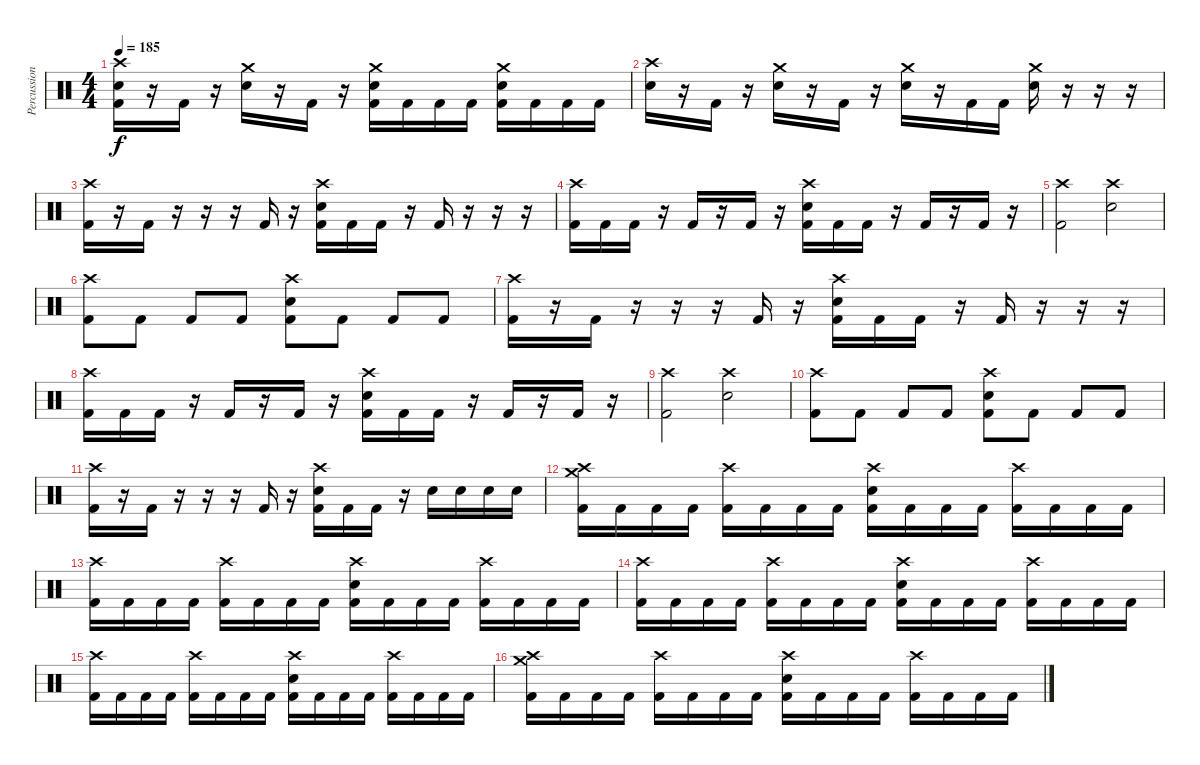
\track ("Percussion" "Percussion") {instrument percussion}
\staff {score}
\articulation defaults
\ts (4 4)
\tempo 185
\clef neutral
\ks c
("Crash high (hit)" "Snare (hit) 2" "Kick (hit) 2").16{dy f} r.16 "Kick (hit) 2".16 r.16 ("Crash medium (hit)" "Snare (hit) 2").16 r.16 "Kick (hit) 2".16 r.16 ("Crash medium (hit)" "Snare (hit) 2" "Kick (hit) 2").16 "Kick (hit) 2".16 "Kick (hit) 2".16 "Kick (hit) 2".16 ("Crash medium (hit)" "Snare (hit) 2" "Kick (hit) 2").16 "Kick (hit) 2".16 "Kick (hit) 2".16 "Kick (hit) 2".16 |
("Crash high (hit)" "Snare (hit) 2").16 r.16 "Kick (hit) 2".16 r.16 ("Crash medium (hit)" "Snare (hit) 2").16 r.16 "Kick (hit) 2".16 r.16 ("Crash medium (hit)" "Snare (hit) 2").16 r.16 "Kick (hit) 2".16 "Kick (hit) 2".16 ("Crash medium (hit)" "Snare (hit) 2").16 r.16 r.16 r.16 |
("Crash high (hit)" "Kick (hit) 2").16 r.16 "Kick (hit) 2".16 r.16 r.16 r.16 "Kick (hit) 2".16 r.16 ("Crash high (hit)" "Snare (hit) 2" "Kick (hit) 2").16 "Kick (hit) 2".16 "Kick (hit) 2".16 r.16 "Kick (hit) 2".16 r.16 r.16 r.16 |
("Crash high (hit)" "Kick (hit) 2").16 "Kick (hit) 2".16 "Kick (hit) 2".16 r.16 "Kick (hit) 2".16 r.16 "Kick (hit) 2".16 r.16 ("Crash high (hit)" "Snare (hit) 2" "Kick (hit) 2").16 "Kick (hit) 2".16 "Kick (hit) 2".16 r.16 "Kick (hit) 2".16 r.16 "Kick (hit) 2".16 r.16 |
("Crash high (hit)" "Kick (hit) 2").2 ("Crash high (hit)" "Snare (hit) 2").2 |
("Crash high (hit)" "Kick (hit) 2").8 "Kick (hit) 2".8 "Kick (hit) 2".8 "Kick (hit) 2".8 ("Crash high (hit)" "Snare (hit) 2" "Kick (hit) 2").8 "Kick (hit) 2".8 "Kick (hit) 2".8 "Kick (hit) 2".8 |
("Crash high (hit)" "Kick (hit) 2").16 r.16 "Kick (hit) 2".16 r.16 r.16 r.16 "Kick (hit) 2".16 r.16 ("Crash high (hit)" "Snare (hit) 2" "Kick (hit) 2").16 "Kick (hit) 2".16 "Kick (hit) 2".16 r.16 "Kick (hit) 2".16 r.16 r.16 r.16 |
("Crash high (hit)" "Kick (hit) 2").16 "Kick (hit) 2".16 "Kick (hit) 2".16 r.16 "Kick (hit) 2".16 r.16 "Kick (hit) 2".16 r.16 ("Crash high (hit)" "Snare (hit) 2" "Kick (hit) 2").16 "Kick (hit) 2".16 "Kick (hit) 2".16 r.16 "Kick (hit) 2".16 r.16 "Kick (hit) 2".16 r.16 |
("Crash high (hit)" "Kick (hit) 2").2 ("Crash high (hit)" "Snare (hit) 2").2 |
("Crash high (hit)" "Kick (hit) 2").8 "Kick (hit) 2".8 "Kick (hit) 2".8 "Kick (hit) 2".8 ("Crash high (hit)" "Snare (hit) 2" "Kick (hit) 2").8 "Kick (hit) 2".8 "Kick (hit) 2".8 "Kick (hit) 2".8 |
("Crash high (hit)" "Kick (hit) 2").16 r.16 "Kick (hit) 2".16 r.16 r.16 r.16 "Kick (hit) 2".16 r.16 ("Crash high (hit)" "Snare (hit) 2" "Kick (hit) 2").16 "Kick (hit) 2".16 "Kick (hit) 2".16 r.16 "Snare (hit) 2".16 "Snare (hit) 2".16 "Snare (hit) 2".16 "Snare (hit) 2".16 |
("Crash high (hit)" "Crash medium (hit)" "Kick (hit) 2").16 "Kick (hit) 2".16 "Kick (hit) 2".16 "Kick (hit) 2".16 ("Crash high (hit)" "Kick (hit) 2").16 "Kick (hit) 2".16 "Kick (hit) 2".16 "Kick (hit) 2".16 ("Crash high (hit)" "Snare (hit) 2" "Kick (hit) 2").16 "Kick (hit) 2".16 "Kick (hit) 2".16 "Kick (hit) 2".16 ("Crash high (hit)" "Kick (hit) 2").16 "Kick (hit) 2".16 "Kick (hit) 2".16 "Kick (hit) 2".16 |
("Crash high (hit)" "Kick (hit) 2").16 "Kick (hit) 2".16 "Kick (hit) 2".16 "Kick (hit) 2".16 ("Crash high (hit)" "Kick (hit) 2").16 "Kick (hit) 2".16 "Kick (hit) 2".16 "Kick (hit) 2".16 ("Crash high (hit)" "Snare (hit) 2" "Kick (hit) 2").16 "Kick (hit) 2".16 "Kick (hit) 2".16 "Kick (hit) 2".16 ("Crash high (hit)" "Kick (hit) 2").16 "Kick (hit) 2".16 "Kick (hit) 2".16 "Kick (hit) 2".16 |
("Crash high (hit)" "Kick (hit) 2").16 "Kick (hit) 2".16 "Kick (hit) 2".16 "Kick (hit) 2".16 ("Crash high (hit)" "Kick (hit) 2").16 "Kick (hit) 2".16 "Kick (hit) 2".16 "Kick (hit) 2".16 ("Crash high (hit)" "Snare (hit) 2" "Kick (hit) 2").16 "Kick (hit) 2".16 "Kick (hit) 2".16 "Kick (hit) 2".16 ("Crash high (hit)" "Kick (hit) 2").16 "Kick (hit) 2".16 "Kick (hit) 2".16 "Kick (hit) 2".16 |
("Crash high (hit)" "Kick (hit) 2").16 "Kick (hit) 2".16 "Kick (hit) 2".16 "Kick (hit) 2".16 ("Crash high (hit)" "Kick (hit) 2").16 "Kick (hit) 2".16 "Kick (hit) 2".16 "Kick (hit) 2".16 ("Crash high (hit)" "Snare (hit) 2" "Kick (hit) 2").16 "Kick (hit) 2".16 "Kick (hit) 2".16 "Kick (hit) 2".16 ("Crash high (hit)" "Kick (hit) 2").16 "Kick (hit) 2".16 "Kick (hit) 2".16 "Kick (hit) 2".16 |
("Crash high (hit)" "Crash medium (hit)" "Kick (hit) 2").16 "Kick (hit) 2".16 "Kick (hit) 2".16 "Kick (hit) 2".16 ("Crash high (hit)" "Kick (hit) 2").16 "Kick (hit) 2".16 "Kick (hit) 2".16 "Kick (hit) 2".16 ("Crash high (hit)" "Snare (hit) 2" "Kick (hit) 2").16 "Kick (hit) 2".16 "Kick (hit) 2".16 "Kick (hit) 2".16 ("Crash high (hit)" "Kick (hit) 2").16 "Kick (hit) 2".16 "Kick (hit) 2".16 "Kick (hit) 2".16
